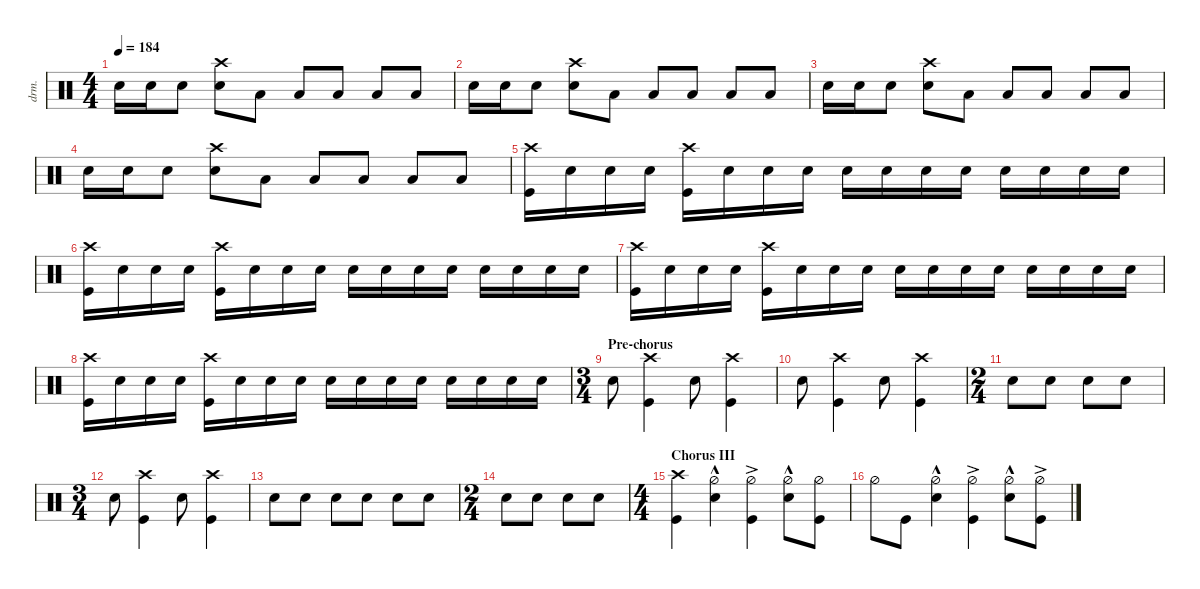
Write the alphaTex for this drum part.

\defaultSystemsLayout 4
\hideDynamics
\bracketExtendMode nobrackets
\otherSystemsTrackNameOrientation horizontal
\track ("Drums" "drm.") {defaultSystemsLayout 4 multiBarRest instrument percussion}
\staff {score}
\articulation defaults
\ts (4 4)
\tempo 184
\clef neutral
\ks c "Snare (hit) 2".16{dy f} "Snare (hit) 2".16{dy mf} "Snare (hit) 2".8
("Snare (hit) 2" "Crash high (hit)").8{dy f} "Low Tom (hit)".8{dy fff} "Low Tom (hit)".8 "Low Tom (hit)".8 "Low Tom (hit)".8 "Low Tom (hit)".8 |
"Snare (hit) 2".16{dy f} "Snare (hit) 2".16{dy mf} "Snare (hit) 2".8 ("Snare (hit) 2" "Crash high (hit)").8{dy f} "Low Tom (hit)".8{dy fff} "Low Tom (hit)".8 "Low Tom (hit)".8 "Low Tom (hit)".8 "Low Tom (hit)".8 |
"Snare (hit) 2".16{dy f} "Snare (hit) 2".16{dy mf} "Snare (hit) 2".8 ("Snare (hit) 2" "Crash high (hit)").8{dy f} "Low Tom (hit)".8{dy fff} "Low Tom (hit)".8 "Low Tom (hit)".8 "Low Tom (hit)".8 "Low Tom (hit)".8 |
"Snare (hit) 2".16{dy f} "Snare (hit) 2".16{dy mf} "Snare (hit) 2".8 ("Snare (hit) 2" "Crash high (hit)").8{dy f} "Low Tom (hit)".8{dy fff} "Low Tom (hit)".8 "Low Tom (hit)".8 "Low Tom (hit)".8 "Low Tom (hit)".8 |
("Crash high (hit)" "Kick (hit)").16{dy f} "Snare (hit) 2".16{dy mp} "Snare (hit) 2".16 "Snare (hit) 2".16 ("Crash high (hit)" "Kick (hit)").16{dy f} "Snare (hit) 2".16{dy mp} "Snare (hit) 2".16 "Snare (hit) 2".16 "Snare (hit) 2".16{dy f} "Snare (hit) 2".16{dy mp} "Snare (hit) 2".16 "Snare (hit) 2".16 "Snare (hit) 2".16{dy f} "Snare (hit) 2".16{dy mp} "Snare (hit) 2".16 "Snare (hit) 2".16 |
("Crash high (hit)" "Kick (hit)").16{dy f} "Snare (hit) 2".16{dy mp} "Snare (hit) 2".16 "Snare (hit) 2".16 ("Crash high (hit)" "Kick (hit)").16{dy f} "Snare (hit) 2".16{dy mp} "Snare (hit) 2".16 "Snare (hit) 2".16 "Snare (hit) 2".16{dy f} "Snare (hit) 2".16{dy mp} "Snare (hit) 2".16 "Snare (hit) 2".16 "Snare (hit) 2".16{dy f} "Snare (hit) 2".16{dy mp} "Snare (hit) 2".16 "Snare (hit) 2".16 |
("Crash high (hit)" "Kick (hit)").16{dy f} "Snare (hit) 2".16{dy mp} "Snare (hit) 2".16 "Snare (hit) 2".16 ("Crash high (hit)" "Kick (hit)").16{dy f} "Snare (hit) 2".16{dy mp} "Snare (hit) 2".16 "Snare (hit) 2".16 "Snare (hit) 2".16{dy f} "Snare (hit) 2".16{dy mp} "Snare (hit) 2".16 "Snare (hit) 2".16 "Snare (hit) 2".16{dy f} "Snare (hit) 2".16{dy mp} "Snare (hit) 2".16 "Snare (hit) 2".16 |
("Crash high (hit)" "Kick (hit)").16{dy f} "Snare (hit) 2".16{dy mp} "Snare (hit) 2".16 "Snare (hit) 2".16 ("Crash high (hit)" "Kick (hit)").16{dy f} "Snare (hit) 2".16{dy mp} "Snare (hit) 2".16 "Snare (hit) 2".16 "Snare (hit) 2".16{dy f} "Snare (hit) 2".16{dy mp} "Snare (hit) 2".16 "Snare (hit) 2".16 "Snare (hit) 2".16{dy f} "Snare (hit) 2".16{dy mp} "Snare (hit) 2".16 "Snare (hit) 2".16 |
\ts (3 4)
\beaming (8 2 2 2 2)
\section ("" "Pre-chorus")
"Snare (hit) 2".8{dy f} ("Crash high (hit)" "Kick (hit)").4 "Snare (hit) 2".8 ("Crash high (hit)" "Kick (hit)").4 |
"Snare (hit) 2".8 ("Crash high (hit)" "Kick (hit)").4 "Snare (hit) 2".8 ("Crash high (hit)" "Kick (hit)").4 |
\ts (2 4)
\beaming (8 2 2 2 2)
"Snare (hit) 2".8 "Snare (hit) 2".8 "Snare (hit) 2".8 "Snare (hit) 2".8 |
\ts (3 4)
\beaming (8 2 2 2 2)
"Snare (hit) 2".8 ("Crash high (hit)" "Kick (hit)").4 "Snare (hit) 2".8 ("Crash high (hit)" "Kick (hit)").4 |
"Snare (hit) 2".8 "Snare (hit) 2".8 "Snare (hit) 2".8 "Snare (hit) 2".8 "Snare (hit) 2".8 "Snare (hit) 2".8 |
\ts (2 4)
\beaming (8 2 2 2 2)
"Snare (hit) 2".8 "Snare (hit) 2".8 "Snare (hit) 2".8 "Snare (hit) 2".8 |
\ts (4 4)
\beaming (8 2 2 2 2)
\section ("" "Chorus III")
("Crash high (hit)" "Kick (hit)").4 ("Hi-Hat (half)"{hac} "Snare (hit) 2").4 ("Hi-Hat (half)"{ac} "Kick (hit)").4 ("Hi-Hat (half)"{hac} "Snare (hit) 2").8 ("Kick (hit)" "Hi-Hat (half)").8 |
"Hi-Hat (half)".8 "Kick (hit)".8 ("Hi-Hat (half)"{hac} "Snare (hit) 2").4 ("Hi-Hat (half)"{ac} "Kick (hit)").4 ("Hi-Hat (half)"{hac} "Snare (hit) 2").8 ("Kick (hit)" "Hi-Hat (half)"{ac}).8
